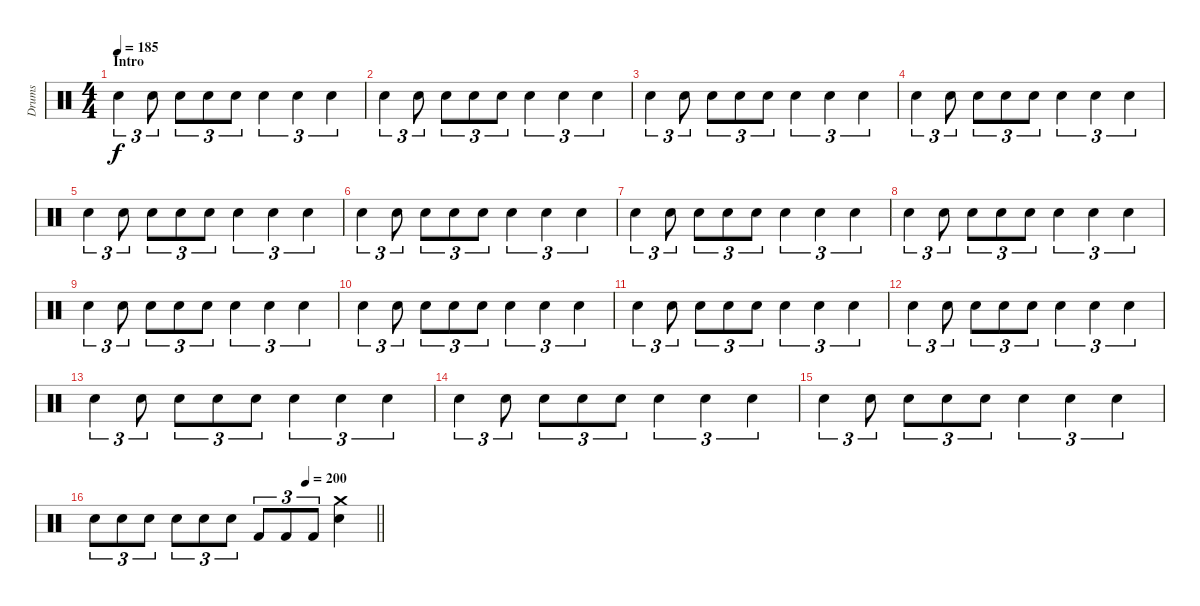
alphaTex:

\track ("Drums" "Drums") {instrument percussion}
\staff {score}
\articulation defaults
\ts (4 4)
\section ("" "Intro")
\tempo 185
\clef neutral
\ks c "Snare (hit) 2".4{tu (3 2) dy f} "Snare (hit) 2".8{tu (3 2)} "Snare (hit) 2".8{tu (3 2)} "Snare (hit) 2".8{tu (3 2)} "Snare (hit) 2".8{tu (3 2)} "Snare (hit) 2".4{tu (3 2)} "Snare (hit) 2".4{tu (3 2)} "Snare (hit) 2".4{tu (3 2)}
|
"Snare (hit) 2".4{tu (3 2)} "Snare (hit) 2".8{tu (3 2)} "Snare (hit) 2".8{tu (3 2)} "Snare (hit) 2".8{tu (3 2)} "Snare (hit) 2".8{tu (3 2)} "Snare (hit) 2".4{tu (3 2)} "Snare (hit) 2".4{tu (3 2)} "Snare (hit) 2".4{tu (3 2)} |
"Snare (hit) 2".4{tu (3 2)} "Snare (hit) 2".8{tu (3 2)} "Snare (hit) 2".8{tu (3 2)} "Snare (hit) 2".8{tu (3 2)} "Snare (hit) 2".8{tu (3 2)} "Snare (hit) 2".4{tu (3 2)} "Snare (hit) 2".4{tu (3 2)} "Snare (hit) 2".4{tu (3 2)} |
"Snare (hit) 2".4{tu (3 2)} "Snare (hit) 2".8{tu (3 2)} "Snare (hit) 2".8{tu (3 2)} "Snare (hit) 2".8{tu (3 2)} "Snare (hit) 2".8{tu (3 2)} "Snare (hit) 2".4{tu (3 2)} "Snare (hit) 2".4{tu (3 2)} "Snare (hit) 2".4{tu (3 2)} |
"Snare (hit) 2".4{tu (3 2)} "Snare (hit) 2".8{tu (3 2)} "Snare (hit) 2".8{tu (3 2)} "Snare (hit) 2".8{tu (3 2)} "Snare (hit) 2".8{tu (3 2)} "Snare (hit) 2".4{tu (3 2)} "Snare (hit) 2".4{tu (3 2)} "Snare (hit) 2".4{tu (3 2)} |
"Snare (hit) 2".4{tu (3 2)} "Snare (hit) 2".8{tu (3 2)} "Snare (hit) 2".8{tu (3 2)} "Snare (hit) 2".8{tu (3 2)} "Snare (hit) 2".8{tu (3 2)} "Snare (hit) 2".4{tu (3 2)} "Snare (hit) 2".4{tu (3 2)} "Snare (hit) 2".4{tu (3 2)} |
"Snare (hit) 2".4{tu (3 2)} "Snare (hit) 2".8{tu (3 2)} "Snare (hit) 2".8{tu (3 2)} "Snare (hit) 2".8{tu (3 2)} "Snare (hit) 2".8{tu (3 2)} "Snare (hit) 2".4{tu (3 2)} "Snare (hit) 2".4{tu (3 2)} "Snare (hit) 2".4{tu (3 2)} |
"Snare (hit) 2".4{tu (3 2)} "Snare (hit) 2".8{tu (3 2)} "Snare (hit) 2".8{tu (3 2)} "Snare (hit) 2".8{tu (3 2)} "Snare (hit) 2".8{tu (3 2)} "Snare (hit) 2".4{tu (3 2)} "Snare (hit) 2".4{tu (3 2)} "Snare (hit) 2".4{tu (3 2)} |
"Snare (hit) 2".4{tu (3 2)} "Snare (hit) 2".8{tu (3 2)} "Snare (hit) 2".8{tu (3 2)} "Snare (hit) 2".8{tu (3 2)} "Snare (hit) 2".8{tu (3 2)} "Snare (hit) 2".4{tu (3 2)} "Snare (hit) 2".4{tu (3 2)} "Snare (hit) 2".4{tu (3 2)} |
"Snare (hit) 2".4{tu (3 2)} "Snare (hit) 2".8{tu (3 2)} "Snare (hit) 2".8{tu (3 2)} "Snare (hit) 2".8{tu (3 2)} "Snare (hit) 2".8{tu (3 2)} "Snare (hit) 2".4{tu (3 2)} "Snare (hit) 2".4{tu (3 2)} "Snare (hit) 2".4{tu (3 2)} |
"Snare (hit) 2".4{tu (3 2)} "Snare (hit) 2".8{tu (3 2)} "Snare (hit) 2".8{tu (3 2)} "Snare (hit) 2".8{tu (3 2)} "Snare (hit) 2".8{tu (3 2)} "Snare (hit) 2".4{tu (3 2)} "Snare (hit) 2".4{tu (3 2)} "Snare (hit) 2".4{tu (3 2)} |
"Snare (hit) 2".4{tu (3 2)} "Snare (hit) 2".8{tu (3 2)} "Snare (hit) 2".8{tu (3 2)} "Snare (hit) 2".8{tu (3 2)} "Snare (hit) 2".8{tu (3 2)} "Snare (hit) 2".4{tu (3 2)} "Snare (hit) 2".4{tu (3 2)} "Snare (hit) 2".4{tu (3 2)} |
"Snare (hit) 2".4{tu (3 2)} "Snare (hit) 2".8{tu (3 2)} "Snare (hit) 2".8{tu (3 2)} "Snare (hit) 2".8{tu (3 2)} "Snare (hit) 2".8{tu (3 2)} "Snare (hit) 2".4{tu (3 2)} "Snare (hit) 2".4{tu (3 2)} "Snare (hit) 2".4{tu (3 2)} |
"Snare (hit) 2".4{tu (3 2)} "Snare (hit) 2".8{tu (3 2)} "Snare (hit) 2".8{tu (3 2)} "Snare (hit) 2".8{tu (3 2)} "Snare (hit) 2".8{tu (3 2)} "Snare (hit) 2".4{tu (3 2)} "Snare (hit) 2".4{tu (3 2)} "Snare (hit) 2".4{tu (3 2)} |
"Snare (hit) 2".4{tu (3 2)} "Snare (hit) 2".8{tu (3 2)} "Snare (hit) 2".8{tu (3 2)} "Snare (hit) 2".8{tu (3 2)} "Snare (hit) 2".8{tu (3 2)} "Snare (hit) 2".4{tu (3 2)} "Snare (hit) 2".4{tu (3 2)} "Snare (hit) 2".4{tu (3 2)} |
\tempo (200 0.75)
\barLineRight lightlight "Snare (hit) 2".8{tu (3 2)} "Snare (hit) 2".8{tu (3 2)} "Snare (hit) 2".8{tu (3 2)} "Snare (hit) 2".8{tu (3 2)} "Snare (hit) 2".8{tu (3 2)} "Snare (hit) 2".8{tu (3 2)} "Kick (hit) 2".8{tu (3 2)} "Kick (hit) 2".8{tu (3 2)} "Kick (hit) 2".8{tu (3 2)}
("Crash medium (hit)" "Snare (hit) 2").4
